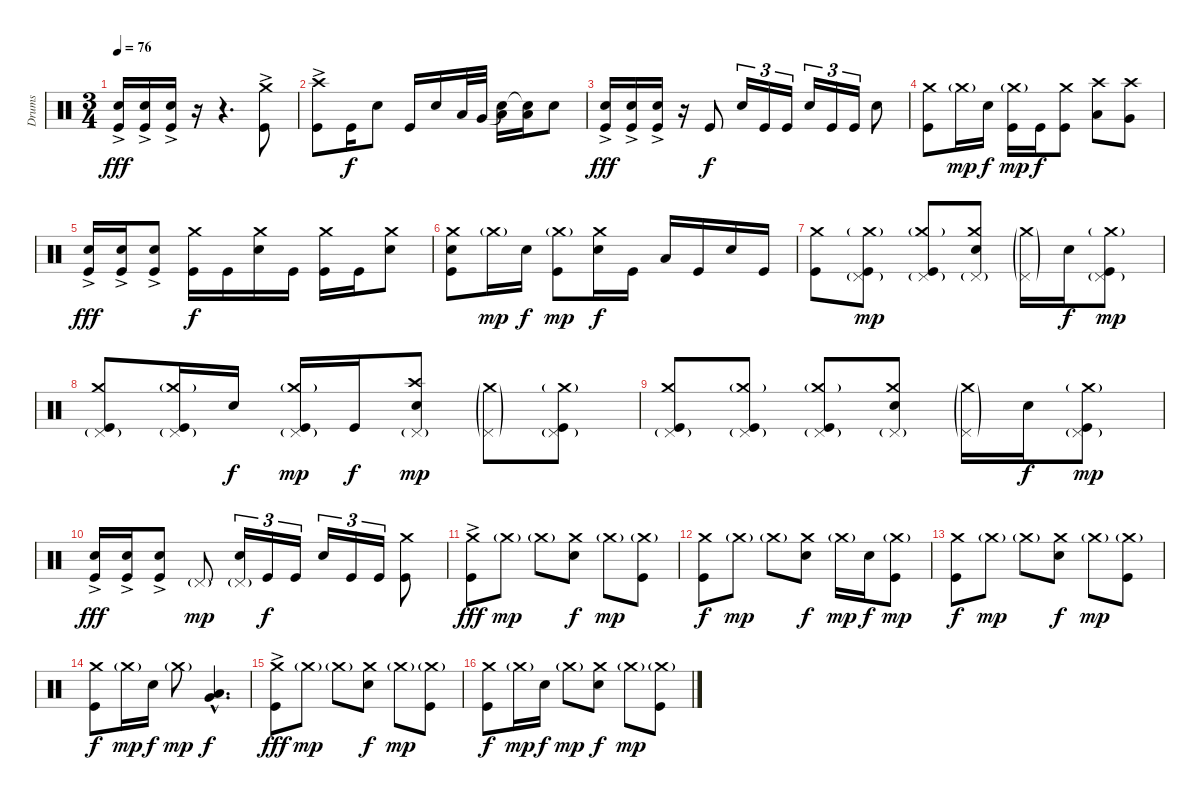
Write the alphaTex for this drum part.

\track ("Drums" "Drums") {instrument percussion}
\staff {score}
\articulation defaults
\ts (3 4)
\tempo 76
\clef neutral
\ks c
("Electric Snare (hit)"{ac} "Kick (hit)").16{dy fff} ("Electric Snare (hit)"{ac} "Kick (hit)").16 ("Electric Snare (hit)"{ac} "Kick (hit)").16 r.16 r.4{d} ("Crash medium (hit)"{ac} "Kick (hit)"{ac}).8 |
("Crash high (hit)"{ac} "Kick (hit)"{ac}).8 "Kick (hit)".16{dy f} "Electric Snare (hit)".8 "Kick (hit)".16 "Electric Snare (hit)".16 "Low Tom (hit)".32 "Very Low Tom (hit)".32 ("Snare (hit)"{t} "Low Tom (hit)").16 ("Snare (hit)"{t} "Low Tom (hit)").16 "Electric Snare (hit)".8 |
("Electric Snare (hit)"{ac} "Kick (hit)").16{dy fff} ("Electric Snare (hit)"{ac} "Kick (hit)").16 ("Electric Snare (hit)"{ac} "Kick (hit)").16 r.16 "Kick (hit)".8{dy f} "Electric Snare (hit)".16{tu (3 2)} "Kick (hit)".16{tu (3 2)} "Kick (hit)".16{tu (3 2)} "Electric Snare (hit)".16{tu (3 2)} "Kick (hit)".16{tu (3 2)} "Kick (hit)".16{tu (3 2)} "Electric Snare (hit)".8 |
("Crash medium (hit)" "Kick (hit)").8 "Crash medium (hit)"{g}.16{dy mp} "Electric Snare (hit)".16{dy f} ("Crash medium (hit)"{g} "Kick (hit)").16{dy mp} "Kick (hit)".16{dy f} ("Crash medium (hit)" "Kick (hit)").8 ("Crash high (hit)" "Low Tom (hit)").8 ("Crash high (hit)" "Very Low Tom (hit)").8 |
("Electric Snare (hit)"{ac} "Kick (hit)").16{dy fff} ("Electric Snare (hit)"{ac} "Kick (hit)").16 ("Electric Snare (hit)"{ac} "Kick (hit)").8 ("Crash medium (hit)" "Kick (hit)").16{dy f} "Kick (hit)".16 ("Crash medium (hit)" "Electric Snare (hit)").16 "Kick (hit)".16 ("Crash medium (hit)" "Kick (hit)").16 "Kick (hit)".16 ("Crash medium (hit)" "Electric Snare (hit)").8 |
("Crash medium (hit)" "Electric Snare (hit)" "Kick (hit)").8 "Crash medium (hit)"{g}.16{dy mp} "Electric Snare (hit)".16{dy f} ("Crash medium (hit)"{g} "Kick (hit)").8{dy mp} ("Crash medium (hit)" "Electric Snare (hit)").16{dy f} "Kick (hit)".16 "Low Tom (hit)".16 "Kick (hit)".16 "Electric Snare (hit)".16 "Kick (hit)".16 |
("Crash medium (hit)" "Kick (hit)").8 ("Pedal Hi-Hat (hit)"{g} "Crash medium (hit)"{g} "Kick (hit)").8{dy mp} ("Pedal Hi-Hat (hit)"{g} "Crash medium (hit)"{g} "Kick (hit)").8 ("Pedal Hi-Hat (hit)"{g} "Crash medium (hit)" "Electric Snare (hit)").8 ("Pedal Hi-Hat (hit)"{g} "Crash medium (hit)"{g}).16 "Electric Snare (hit)".16{dy f} ("Pedal Hi-Hat (hit)"{g} "Crash medium (hit)"{g} "Kick (hit)").8{dy mp} |
("Pedal Hi-Hat (hit)"{g} "Crash medium (hit)" "Kick (hit)").8 ("Pedal Hi-Hat (hit)"{g} "Crash medium (hit)"{g} "Kick (hit)").16 "Electric Snare (hit)".16{dy f} ("Pedal Hi-Hat (hit)"{g} "Crash medium (hit)"{g} "Kick (hit)").16{dy mp} "Kick (hit)".16{dy f} ("Pedal Hi-Hat (hit)"{g} "Crash high (hit)" "Electric Snare (hit)").8{dy mp} ("Pedal Hi-Hat (hit)"{g} "Crash medium (hit)"{g}).8 ("Pedal Hi-Hat (hit)"{g} "Crash medium (hit)"{g} "Kick (hit)").8 |
("Pedal Hi-Hat (hit)"{g} "Crash medium (hit)" "Kick (hit)").8 ("Pedal Hi-Hat (hit)"{g} "Crash medium (hit)"{g} "Kick (hit)").8 ("Pedal Hi-Hat (hit)"{g} "Crash medium (hit)"{g} "Kick (hit)").8 ("Pedal Hi-Hat (hit)"{g} "Crash medium (hit)" "Electric Snare (hit)").8 ("Pedal Hi-Hat (hit)"{g} "Crash medium (hit)"{g}).16 "Electric Snare (hit)".16{dy f} ("Pedal Hi-Hat (hit)"{g} "Crash medium (hit)"{g} "Kick (hit)").8{dy mp} |
("Electric Snare (hit)"{ac} "Kick (hit)").16{dy fff} ("Electric Snare (hit)"{ac} "Kick (hit)").16 ("Electric Snare (hit)"{ac} "Kick (hit)").8 "Pedal Hi-Hat (hit)"{g}.8{dy mp} ("Pedal Hi-Hat (hit)"{g} "Electric Snare (hit)").16{tu (3 2)} "Kick (hit)".16{tu (3 2) dy f} "Kick (hit)".16{tu (3 2)} "Electric Snare (hit)".16{tu (3 2)} "Kick (hit)".16{tu (3 2)} "Kick (hit)".16{tu (3 2)} ("Crash medium (hit)" "Kick (hit)").8 |
("Crash medium (hit)"{ac} "Kick (hit)"{ac}).8{dy fff} "Crash medium (hit)"{g}.8{dy mp} "Crash medium (hit)"{g}.8 ("Crash medium (hit)" "Electric Snare (hit)").8{dy f} "Crash medium (hit)"{g}.8{dy mp} ("Crash medium (hit)"{g} "Kick (hit)").8 |
("Crash medium (hit)" "Kick (hit)").8{dy f} "Crash medium (hit)"{g}.8{dy mp} "Crash medium (hit)"{g}.8 ("Crash medium (hit)" "Electric Snare (hit)").8{dy f} "Crash medium (hit)"{g}.16{dy mp} "Electric Snare (hit)".16{dy f} ("Crash medium (hit)"{g} "Kick (hit)").8{dy mp} |
("Crash medium (hit)" "Kick (hit)").8{dy f} "Crash medium (hit)"{g}.8{dy mp} "Crash medium (hit)"{g}.8 ("Crash medium (hit)" "Electric Snare (hit)").8{dy f} "Crash medium (hit)"{g}.8{dy mp} ("Crash medium (hit)"{g} "Kick (hit)").8 |
("Crash medium (hit)" "Kick (hit)").8{dy f} "Crash medium (hit)"{g}.16{dy mp} "Electric Snare (hit)".16{dy f} "Crash medium (hit)"{g}.8{dy mp} ("Low Tom (hit)"{hac} "Very Low Tom (hit)"{hac}).4{d dy f} |
("Crash medium (hit)"{ac} "Kick (hit)"{ac}).8{dy fff} "Crash medium (hit)"{g}.8{dy mp} "Crash medium (hit)"{g}.8 ("Crash medium (hit)" "Electric Snare (hit)").8{dy f} "Crash medium (hit)"{g}.8{dy mp} ("Crash medium (hit)"{g} "Kick (hit)").8 |
("Crash medium (hit)" "Kick (hit)").8{dy f} "Crash medium (hit)"{g}.16{dy mp} "Electric Snare (hit)".16{dy f} "Crash medium (hit)"{g}.8{dy mp} ("Crash medium (hit)" "Electric Snare (hit)").8{dy f} "Crash medium (hit)"{g}.8{dy mp} ("Crash medium (hit)"{g} "Kick (hit)").8
